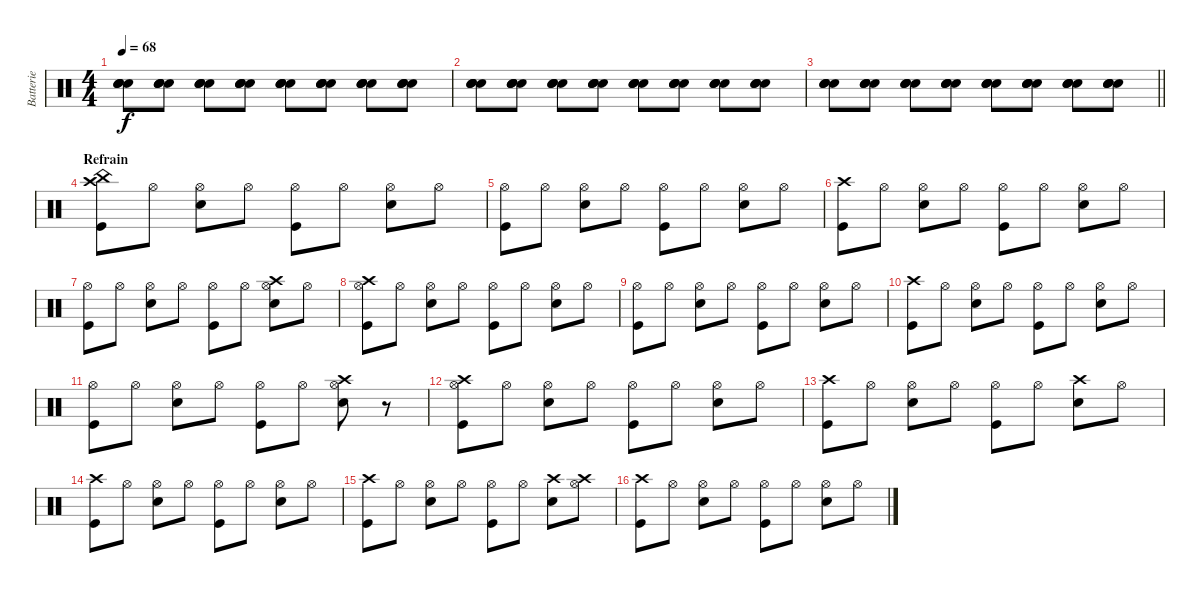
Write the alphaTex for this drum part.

\track ("Batterie" "Batterie") {instrument percussion}
\staff {score}
\articulation defaults
\ts (4 4)
\tempo 68
\clef neutral
\ks c
("Snare (hit) 2" "Snare (hit) 2" "Snare (hit) 2" "Snare (hit) 2").8{dy f} ("Snare (hit) 2" "Snare (hit) 2" "Snare (hit) 2" "Snare (hit) 2").8 ("Snare (hit) 2" "Snare (hit) 2" "Snare (hit) 2" "Snare (hit) 2").8 ("Snare (hit) 2" "Snare (hit) 2" "Snare (hit) 2" "Snare (hit) 2").8 ("Snare (hit) 2" "Snare (hit) 2" "Snare (hit) 2" "Snare (hit) 2").8 ("Snare (hit) 2" "Snare (hit) 2" "Snare (hit) 2" "Snare (hit) 2").8 ("Snare (hit) 2" "Snare (hit) 2" "Snare (hit) 2" "Snare (hit) 2").8 ("Snare (hit) 2" "Snare (hit) 2" "Snare (hit) 2" "Snare (hit) 2").8 |
("Snare (hit) 2" "Snare (hit) 2" "Snare (hit) 2" "Snare (hit) 2").8 ("Snare (hit) 2" "Snare (hit) 2" "Snare (hit) 2" "Snare (hit) 2").8 ("Snare (hit) 2" "Snare (hit) 2" "Snare (hit) 2" "Snare (hit) 2").8 ("Snare (hit) 2" "Snare (hit) 2" "Snare (hit) 2" "Snare (hit) 2").8 ("Snare (hit) 2" "Snare (hit) 2" "Snare (hit) 2" "Snare (hit) 2").8 ("Snare (hit) 2" "Snare (hit) 2" "Snare (hit) 2" "Snare (hit) 2").8 ("Snare (hit) 2" "Snare (hit) 2" "Snare (hit) 2" "Snare (hit) 2").8 ("Snare (hit) 2" "Snare (hit) 2" "Snare (hit) 2" "Snare (hit) 2").8 |
\barLineRight lightlight
("Snare (hit) 2" "Snare (hit) 2" "Snare (hit) 2" "Snare (hit) 2").8 ("Snare (hit) 2" "Snare (hit) 2" "Snare (hit) 2" "Snare (hit) 2").8 ("Snare (hit) 2" "Snare (hit) 2" "Snare (hit) 2" "Snare (hit) 2").8 ("Snare (hit) 2" "Snare (hit) 2" "Snare (hit) 2" "Snare (hit) 2").8 ("Snare (hit) 2" "Snare (hit) 2" "Snare (hit) 2" "Snare (hit) 2").8 ("Snare (hit) 2" "Snare (hit) 2" "Snare (hit) 2" "Snare (hit) 2").8 ("Snare (hit) 2" "Snare (hit) 2" "Snare (hit) 2" "Snare (hit) 2").8 ("Snare (hit) 2" "Snare (hit) 2" "Snare (hit) 2" "Snare (hit) 2").8 |
\section ("" "Refrain")
("China (hit)" "Crash high (hit)" "Kick (hit)").8{volume 12} "Hi-Hat (open)".8 ("Hi-Hat (open)" "Snare (hit) 2").8 "Hi-Hat (open)".8 ("Hi-Hat (open)" "Kick (hit)").8 "Hi-Hat (open)".8 ("Hi-Hat (open)" "Snare (hit) 2").8 "Hi-Hat (open)".8 |
("Hi-Hat (open)" "Kick (hit)").8 "Hi-Hat (open)".8 ("Hi-Hat (open)" "Snare (hit) 2").8 "Hi-Hat (open)".8 ("Hi-Hat (open)" "Kick (hit)").8 "Hi-Hat (open)".8 ("Hi-Hat (open)" "Snare (hit) 2").8 "Hi-Hat (open)".8 |
("Crash high (hit)" "Kick (hit)").8 "Hi-Hat (open)".8 ("Hi-Hat (open)" "Snare (hit) 2").8 "Hi-Hat (open)".8 ("Hi-Hat (open)" "Kick (hit)").8 "Hi-Hat (open)".8 ("Hi-Hat (open)" "Snare (hit) 2").8 "Hi-Hat (open)".8 |
("Hi-Hat (open)" "Kick (hit)").8 "Hi-Hat (open)".8 ("Hi-Hat (open)" "Snare (hit) 2").8 "Hi-Hat (open)".8 ("Hi-Hat (open)" "Kick (hit)").8 "Hi-Hat (open)".8 ("Hi-Hat (open)" "Crash high (hit)" "Snare (hit) 2").8 "Hi-Hat (open)".8 |
("Hi-Hat (open)" "Crash high (hit)" "Kick (hit)").8 "Hi-Hat (open)".8 ("Hi-Hat (open)" "Snare (hit) 2").8 "Hi-Hat (open)".8 ("Hi-Hat (open)" "Kick (hit)").8 "Hi-Hat (open)".8 ("Hi-Hat (open)" "Snare (hit) 2").8 "Hi-Hat (open)".8 |
("Hi-Hat (open)" "Kick (hit)").8 "Hi-Hat (open)".8 ("Hi-Hat (open)" "Snare (hit) 2").8 "Hi-Hat (open)".8 ("Hi-Hat (open)" "Kick (hit)").8 "Hi-Hat (open)".8 ("Hi-Hat (open)" "Snare (hit) 2").8 "Hi-Hat (open)".8 |
("Crash high (hit)" "Kick (hit)").8 "Hi-Hat (open)".8 ("Hi-Hat (open)" "Snare (hit) 2").8 "Hi-Hat (open)".8 ("Hi-Hat (open)" "Kick (hit)").8 "Hi-Hat (open)".8 ("Hi-Hat (open)" "Snare (hit) 2").8 "Hi-Hat (open)".8 |
("Hi-Hat (open)" "Kick (hit)").8 "Hi-Hat (open)".8 ("Hi-Hat (open)" "Snare (hit) 2").8 "Hi-Hat (open)".8 ("Hi-Hat (open)" "Kick (hit)").8 "Hi-Hat (open)".8 ("Hi-Hat (open)" "Crash high (hit)" "Snare (hit) 2").8 r.8 |
("Hi-Hat (open)" "Crash high (hit)" "Kick (hit)").8 "Hi-Hat (open)".8 ("Hi-Hat (open)" "Snare (hit) 2").8 "Hi-Hat (open)".8 ("Hi-Hat (open)" "Kick (hit)").8 "Hi-Hat (open)".8 ("Hi-Hat (open)" "Snare (hit) 2").8 "Hi-Hat (open)".8 |
("Crash high (hit)" "Kick (hit)").8 "Hi-Hat (open)".8 ("Hi-Hat (open)" "Snare (hit) 2").8 "Hi-Hat (open)".8 ("Hi-Hat (open)" "Kick (hit)").8 "Hi-Hat (open)".8 ("Crash high (hit)" "Snare (hit) 2").8 "Hi-Hat (open)".8 |
("Crash high (hit)" "Kick (hit)").8 "Hi-Hat (open)".8 ("Hi-Hat (open)" "Snare (hit) 2").8 "Hi-Hat (open)".8 ("Hi-Hat (open)" "Kick (hit)").8 "Hi-Hat (open)".8 ("Hi-Hat (open)" "Snare (hit) 2").8 "Hi-Hat (open)".8 |
("Crash high (hit)" "Kick (hit)").8 "Hi-Hat (open)".8 ("Hi-Hat (open)" "Snare (hit) 2").8 "Hi-Hat (open)".8 ("Hi-Hat (open)" "Kick (hit)").8 "Hi-Hat (open)".8 ("Crash high (hit)" "Snare (hit) 2").8 ("Hi-Hat (open)" "Crash high (hit)").8 |
("Crash high (hit)" "Kick (hit)").8 "Hi-Hat (open)".8 ("Hi-Hat (open)" "Snare (hit) 2").8 "Hi-Hat (open)".8 ("Hi-Hat (open)" "Kick (hit)").8 "Hi-Hat (open)".8 ("Hi-Hat (open)" "Snare (hit) 2").8 "Hi-Hat (open)".8
